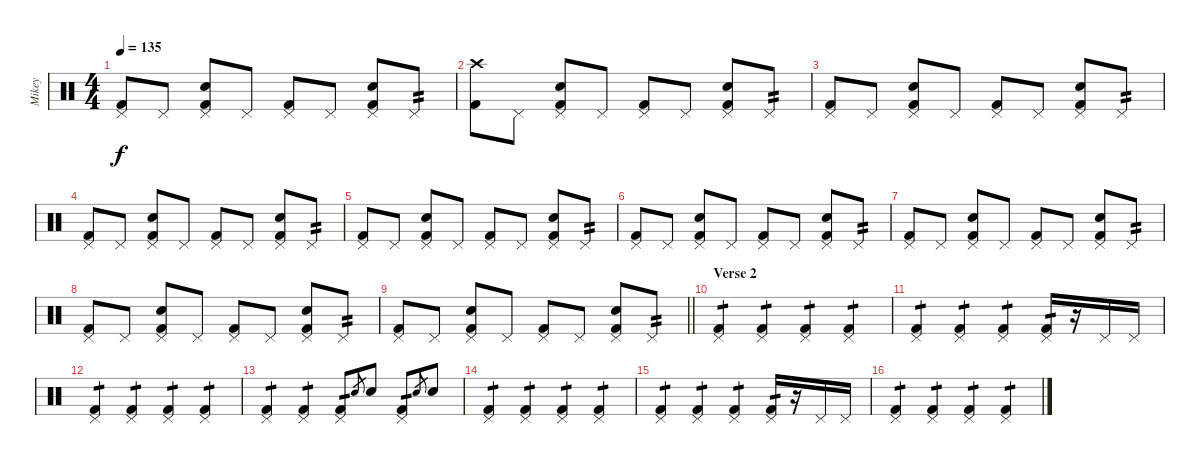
\track ("Mikey" "Mikey") {instrument percussion}
\staff {score}
\articulation defaults
\ts (4 4)
\tempo 135
\clef neutral
\ks c
("Pedal Hi-Hat (hit)" "Kick (hit) 2").8{dy f} "Pedal Hi-Hat (hit)".8 ("Pedal Hi-Hat (hit)" "Snare (hit) 2" "Kick (hit) 2").8 "Pedal Hi-Hat (hit)".8 ("Pedal Hi-Hat (hit)" "Kick (hit) 2").8 "Pedal Hi-Hat (hit)".8 ("Pedal Hi-Hat (hit)" "Snare (hit) 2" "Kick (hit) 2").8 "Pedal Hi-Hat (hit)".8{tp 2} |
("Crash high (hit)" "Kick (hit) 2").8 "Pedal Hi-Hat (hit)".8 ("Pedal Hi-Hat (hit)" "Snare (hit) 2" "Kick (hit) 2").8 "Pedal Hi-Hat (hit)".8 ("Pedal Hi-Hat (hit)" "Kick (hit) 2").8 "Pedal Hi-Hat (hit)".8 ("Pedal Hi-Hat (hit)" "Snare (hit) 2" "Kick (hit) 2").8 "Pedal Hi-Hat (hit)".8{tp 2} |
("Pedal Hi-Hat (hit)" "Kick (hit) 2").8 "Pedal Hi-Hat (hit)".8 ("Pedal Hi-Hat (hit)" "Snare (hit) 2" "Kick (hit) 2").8 "Pedal Hi-Hat (hit)".8 ("Pedal Hi-Hat (hit)" "Kick (hit) 2").8 "Pedal Hi-Hat (hit)".8 ("Pedal Hi-Hat (hit)" "Snare (hit) 2" "Kick (hit) 2").8 "Pedal Hi-Hat (hit)".8{tp 2} |
("Pedal Hi-Hat (hit)" "Kick (hit) 2").8 "Pedal Hi-Hat (hit)".8 ("Pedal Hi-Hat (hit)" "Snare (hit) 2" "Kick (hit) 2").8 "Pedal Hi-Hat (hit)".8 ("Pedal Hi-Hat (hit)" "Kick (hit) 2").8 "Pedal Hi-Hat (hit)".8 ("Pedal Hi-Hat (hit)" "Snare (hit) 2" "Kick (hit) 2").8 "Pedal Hi-Hat (hit)".8{tp 2} |
("Pedal Hi-Hat (hit)" "Kick (hit) 2").8 "Pedal Hi-Hat (hit)".8 ("Pedal Hi-Hat (hit)" "Snare (hit) 2" "Kick (hit) 2").8 "Pedal Hi-Hat (hit)".8 ("Pedal Hi-Hat (hit)" "Kick (hit) 2").8 "Pedal Hi-Hat (hit)".8 ("Pedal Hi-Hat (hit)" "Snare (hit) 2" "Kick (hit) 2").8 "Pedal Hi-Hat (hit)".8{tp 2} |
("Pedal Hi-Hat (hit)" "Kick (hit) 2").8 "Pedal Hi-Hat (hit)".8 ("Pedal Hi-Hat (hit)" "Snare (hit) 2" "Kick (hit) 2").8 "Pedal Hi-Hat (hit)".8 ("Pedal Hi-Hat (hit)" "Kick (hit) 2").8 "Pedal Hi-Hat (hit)".8 ("Pedal Hi-Hat (hit)" "Snare (hit) 2" "Kick (hit) 2").8 "Pedal Hi-Hat (hit)".8{tp 2} |
("Pedal Hi-Hat (hit)" "Kick (hit) 2").8 "Pedal Hi-Hat (hit)".8 ("Pedal Hi-Hat (hit)" "Snare (hit) 2" "Kick (hit) 2").8 "Pedal Hi-Hat (hit)".8 ("Pedal Hi-Hat (hit)" "Kick (hit) 2").8 "Pedal Hi-Hat (hit)".8 ("Pedal Hi-Hat (hit)" "Snare (hit) 2" "Kick (hit) 2").8 "Pedal Hi-Hat (hit)".8{tp 2} |
("Pedal Hi-Hat (hit)" "Kick (hit) 2").8 "Pedal Hi-Hat (hit)".8 ("Pedal Hi-Hat (hit)" "Snare (hit) 2" "Kick (hit) 2").8 "Pedal Hi-Hat (hit)".8 ("Pedal Hi-Hat (hit)" "Kick (hit) 2").8 "Pedal Hi-Hat (hit)".8 ("Pedal Hi-Hat (hit)" "Snare (hit) 2" "Kick (hit) 2").8 "Pedal Hi-Hat (hit)".8{tp 2} |
\barLineRight lightlight
("Pedal Hi-Hat (hit)" "Kick (hit) 2").8 "Pedal Hi-Hat (hit)".8 ("Pedal Hi-Hat (hit)" "Snare (hit) 2" "Kick (hit) 2").8 "Pedal Hi-Hat (hit)".8 ("Pedal Hi-Hat (hit)" "Kick (hit) 2").8 "Pedal Hi-Hat (hit)".8 ("Pedal Hi-Hat (hit)" "Snare (hit) 2" "Kick (hit) 2").8 "Pedal Hi-Hat (hit)".8{tp 2} |
\section ("" "Verse 2")
("Pedal Hi-Hat (hit)" "Kick (hit) 2").4{tp 1} ("Pedal Hi-Hat (hit)" "Kick (hit) 2").4{tp 1} ("Pedal Hi-Hat (hit)" "Kick (hit) 2").4{tp 1} ("Pedal Hi-Hat (hit)" "Kick (hit) 2").4{tp 1} |
("Pedal Hi-Hat (hit)" "Kick (hit) 2").4{tp 1} ("Pedal Hi-Hat (hit)" "Kick (hit) 2").4{tp 1} ("Pedal Hi-Hat (hit)" "Kick (hit) 2").4{tp 1} ("Pedal Hi-Hat (hit)" "Kick (hit) 2").16{tp 1} r.16 "Pedal Hi-Hat (hit)".16 "Pedal Hi-Hat (hit)".16 |
("Pedal Hi-Hat (hit)" "Kick (hit) 2").4{tp 1} ("Pedal Hi-Hat (hit)" "Kick (hit) 2").4{tp 1} ("Pedal Hi-Hat (hit)" "Kick (hit) 2").4{tp 1} ("Pedal Hi-Hat (hit)" "Kick (hit) 2").4{tp 1} |
("Pedal Hi-Hat (hit)" "Kick (hit) 2").4{tp 1} ("Pedal Hi-Hat (hit)" "Kick (hit) 2").4{tp 1} ("Pedal Hi-Hat (hit)" "Kick (hit) 2").8{tp 1} "Snare (hit) 2".8{gr} "Snare (hit) 2".8 ("Pedal Hi-Hat (hit)" "Kick (hit) 2").8{tp 1} "Snare (hit) 2".8{gr} "Snare (hit) 2".8 |
("Pedal Hi-Hat (hit)" "Kick (hit) 2").4{tp 1} ("Pedal Hi-Hat (hit)" "Kick (hit) 2").4{tp 1} ("Pedal Hi-Hat (hit)" "Kick (hit) 2").4{tp 1} ("Pedal Hi-Hat (hit)" "Kick (hit) 2").4{tp 1} |
("Pedal Hi-Hat (hit)" "Kick (hit) 2").4{tp 1} ("Pedal Hi-Hat (hit)" "Kick (hit) 2").4{tp 1} ("Pedal Hi-Hat (hit)" "Kick (hit) 2").4{tp 1} ("Pedal Hi-Hat (hit)" "Kick (hit) 2").16{tp 1} r.16 "Pedal Hi-Hat (hit)".16 "Pedal Hi-Hat (hit)".16 |
("Pedal Hi-Hat (hit)" "Kick (hit) 2").4{tp 1} ("Pedal Hi-Hat (hit)" "Kick (hit) 2").4{tp 1} ("Pedal Hi-Hat (hit)" "Kick (hit) 2").4{tp 1} ("Pedal Hi-Hat (hit)" "Kick (hit) 2").4{tp 1}
